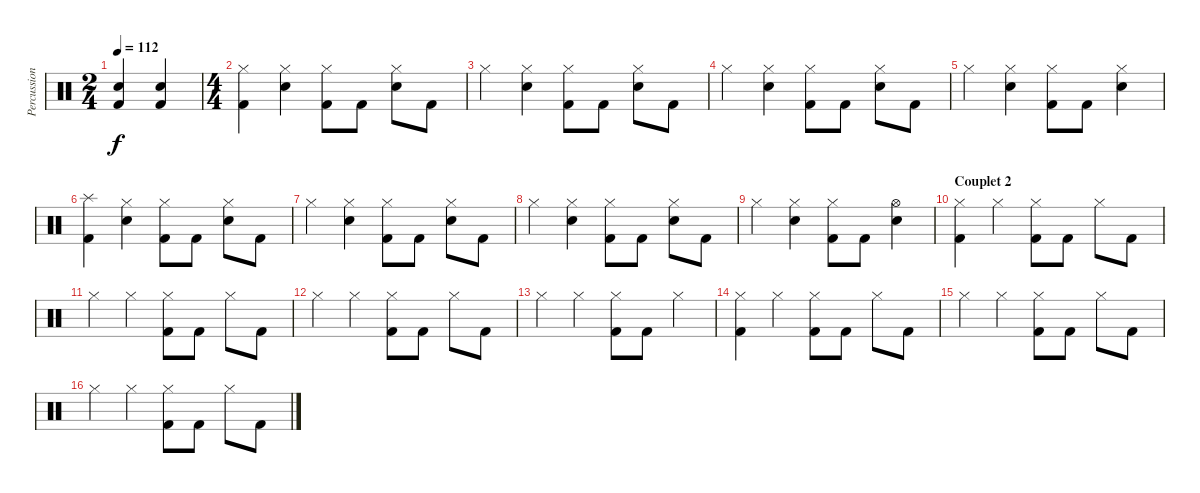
\track ("Percussions" "Percussion") {instrument percussion}
\staff {score}
\articulation defaults
\ts (2 4)
\tempo 112
\clef neutral
\ks c
("Snare (hit) 2" "Kick (hit) 2").4{dy f} ("Snare (hit) 2" "Kick (hit) 2").4 |
\ts (4 4)
("Hi-Hat (closed)" "Kick (hit) 2").4 ("Hi-Hat (closed)" "Snare (hit) 2").4 ("Hi-Hat (closed)" "Kick (hit) 2").8 "Kick (hit) 2".8 ("Hi-Hat (closed)" "Snare (hit) 2").8 "Kick (hit) 2".8 |
"Hi-Hat (closed)".4 ("Hi-Hat (closed)" "Snare (hit) 2").4 ("Hi-Hat (closed)" "Kick (hit) 2").8 "Kick (hit) 2".8 ("Hi-Hat (closed)" "Snare (hit) 2").8 "Kick (hit) 2".8 |
"Hi-Hat (closed)".4 ("Hi-Hat (closed)" "Snare (hit) 2").4 ("Hi-Hat (closed)" "Kick (hit) 2").8 "Kick (hit) 2".8 ("Hi-Hat (closed)" "Snare (hit) 2").8 "Kick (hit) 2".8 |
"Hi-Hat (closed)".4 ("Hi-Hat (closed)" "Snare (hit) 2").4 ("Hi-Hat (closed)" "Kick (hit) 2").8 "Kick (hit) 2".8 ("Hi-Hat (closed)" "Snare (hit) 2").4 |
("Splash (hit)" "Kick (hit) 2").4 ("Hi-Hat (closed)" "Snare (hit) 2").4 ("Hi-Hat (closed)" "Kick (hit) 2").8 "Kick (hit) 2".8 ("Hi-Hat (closed)" "Snare (hit) 2").8 "Kick (hit) 2".8 |
"Hi-Hat (closed)".4 ("Hi-Hat (closed)" "Snare (hit) 2").4 ("Hi-Hat (closed)" "Kick (hit) 2").8 "Kick (hit) 2".8 ("Hi-Hat (closed)" "Snare (hit) 2").8 "Kick (hit) 2".8 |
"Hi-Hat (closed)".4 ("Hi-Hat (closed)" "Snare (hit) 2").4 ("Hi-Hat (closed)" "Kick (hit) 2").8 "Kick (hit) 2".8 ("Hi-Hat (closed)" "Snare (hit) 2").8 "Kick (hit) 2".8 |
"Hi-Hat (closed)".4 ("Hi-Hat (closed)" "Snare (hit) 2").4 ("Hi-Hat (closed)" "Kick (hit) 2").8 "Kick (hit) 2".8 ("Hi-Hat (open)" "Snare (hit) 2").4 |
\section ("" "Couplet 2")
("Hi-Hat (closed)" "Kick (hit) 2").4 "Hi-Hat (closed)".4 ("Hi-Hat (closed)" "Kick (hit) 2").8 "Kick (hit) 2".8 "Hi-Hat (closed)".8 "Kick (hit) 2".8 |
"Hi-Hat (closed)".4 "Hi-Hat (closed)".4 ("Hi-Hat (closed)" "Kick (hit) 2").8 "Kick (hit) 2".8 "Hi-Hat (closed)".8 "Kick (hit) 2".8 |
"Hi-Hat (closed)".4 "Hi-Hat (closed)".4 ("Hi-Hat (closed)" "Kick (hit) 2").8 "Kick (hit) 2".8 "Hi-Hat (closed)".8 "Kick (hit) 2".8 |
"Hi-Hat (closed)".4 "Hi-Hat (closed)".4 ("Hi-Hat (closed)" "Kick (hit) 2").8 "Kick (hit) 2".8 "Hi-Hat (closed)".4 |
("Hi-Hat (closed)" "Kick (hit) 2").4 "Hi-Hat (closed)".4 ("Hi-Hat (closed)" "Kick (hit) 2").8 "Kick (hit) 2".8 "Hi-Hat (closed)".8 "Kick (hit) 2".8 |
"Hi-Hat (closed)".4 "Hi-Hat (closed)".4 ("Hi-Hat (closed)" "Kick (hit) 2").8 "Kick (hit) 2".8 "Hi-Hat (closed)".8 "Kick (hit) 2".8 |
"Hi-Hat (closed)".4 "Hi-Hat (closed)".4 ("Hi-Hat (closed)" "Kick (hit) 2").8 "Kick (hit) 2".8 "Hi-Hat (closed)".8 "Kick (hit) 2".8
